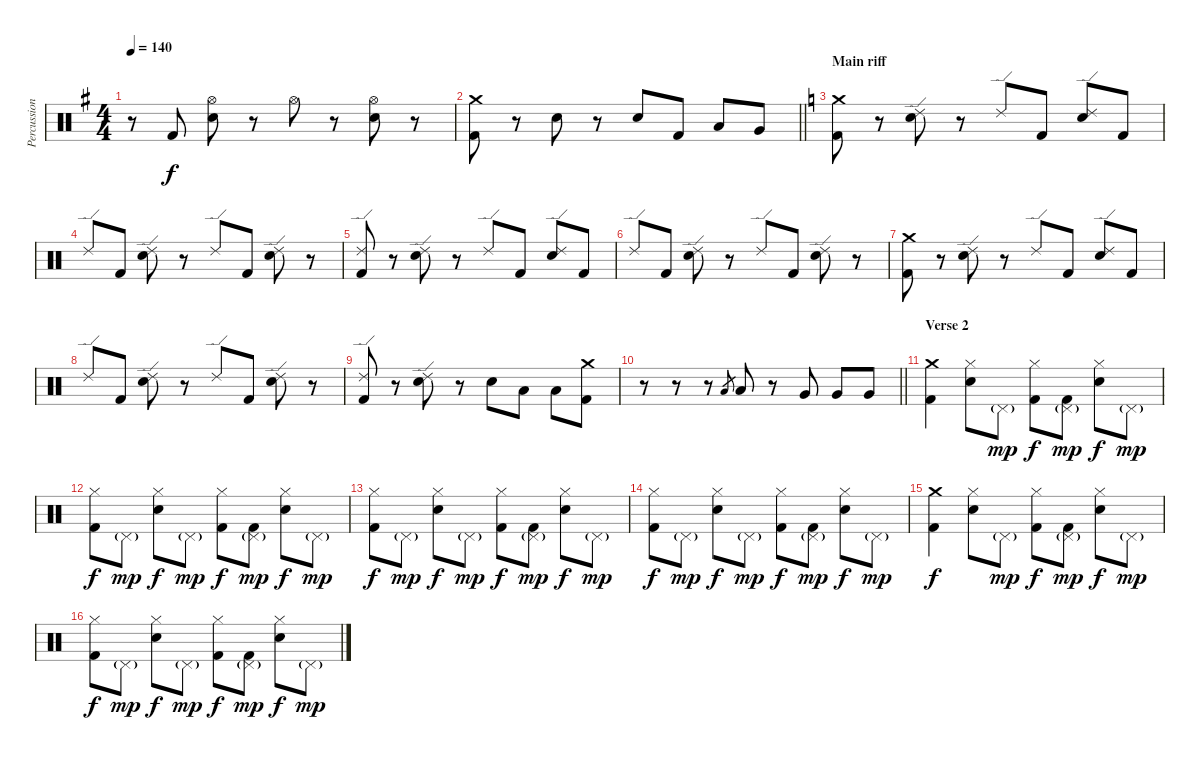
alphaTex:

\track ("Percussion" "Percussion") {instrument percussion}
\staff {score}
\articulation defaults
\ts (4 4)
\tempo 140
\clef neutral
\ks g
r.8{dy f} "Kick (hit) 2".8 ("Hi-Hat (open)" "Electric Snare (hit)").8 r.8 "Hi-Hat (open)".8 r.8 ("Hi-Hat (open)" "Electric Snare (hit)").8 r.8 |
\barLineRight lightlight
("Crash medium (hit)" "Kick (hit) 2").8 r.8 "Electric Snare (hit)".8 r.8 "Electric Snare (hit)".8 "Kick (hit) 2".8 "Low Tom (hit)".8 "Very Low Tom (hit)".8 |
\section ("" "Main riff")
\ks c
("Crash medium (hit)" "Kick (hit) 2").8 r.8 ("Ride (edge) 2" "Electric Snare (hit)").8 r.8 "Ride (edge) 2".8 "Kick (hit) 2".8 ("Ride (edge) 2" "Electric Snare (hit)").8 "Kick (hit) 2".8 |
"Ride (edge) 2".8 "Kick (hit) 2".8 ("Ride (edge) 2" "Electric Snare (hit)").8 r.8 "Ride (edge) 2".8 "Kick (hit) 2".8 ("Ride (edge) 2" "Electric Snare (hit)").8 r.8 |
("Ride (edge) 2" "Kick (hit) 2").8 r.8 ("Ride (edge) 2" "Electric Snare (hit)").8 r.8 "Ride (edge) 2".8 "Kick (hit) 2".8 ("Ride (edge) 2" "Electric Snare (hit)").8 "Kick (hit) 2".8 |
"Ride (edge) 2".8 "Kick (hit) 2".8 ("Ride (edge) 2" "Electric Snare (hit)").8 r.8 "Ride (edge) 2".8 "Kick (hit) 2".8 ("Ride (edge) 2" "Electric Snare (hit)").8 r.8 |
("Crash medium (hit)" "Kick (hit) 2").8 r.8 ("Ride (edge) 2" "Electric Snare (hit)").8 r.8 "Ride (edge) 2".8 "Kick (hit) 2".8 ("Ride (edge) 2" "Electric Snare (hit)").8 "Kick (hit) 2".8 |
"Ride (edge) 2".8 "Kick (hit) 2".8 ("Ride (edge) 2" "Electric Snare (hit)").8 r.8 "Ride (edge) 2".8 "Kick (hit) 2".8 ("Ride (edge) 2" "Electric Snare (hit)").8 r.8 |
("Ride (edge) 2" "Kick (hit) 2").8 r.8 ("Ride (edge) 2" "Electric Snare (hit)").8 r.8 "Electric Snare (hit)".8 "Low Tom (hit)".8 "Low Tom (hit)".8 ("Crash medium (hit)" "Kick (hit) 2").8 |
\barLineRight lightlight
r.8 r.8 r.8 "Low Tom (hit)".8{gr} "Low Tom (hit)".8 r.8 "Very Low Tom (hit)".8 "Very Low Tom (hit)".8 "Very Low Tom (hit)".8 |
\section ("" "Verse 2")
("Crash medium (hit)" "Kick (hit) 2").4 ("Hi-Hat (closed)" "Electric Snare (hit)").8 "Pedal Hi-Hat (hit)"{g}.8{dy mp} ("Hi-Hat (closed)" "Kick (hit) 2").8{dy f} ("Pedal Hi-Hat (hit)"{g} "Kick (hit) 2").8{dy mp} ("Hi-Hat (closed)" "Electric Snare (hit)").8{dy f} "Pedal Hi-Hat (hit)"{g}.8{dy mp} |
("Hi-Hat (closed)" "Kick (hit) 2").8{dy f} "Pedal Hi-Hat (hit)"{g}.8{dy mp} ("Hi-Hat (closed)" "Electric Snare (hit)").8{dy f} "Pedal Hi-Hat (hit)"{g}.8{dy mp} ("Hi-Hat (closed)" "Kick (hit) 2").8{dy f} ("Pedal Hi-Hat (hit)"{g} "Kick (hit) 2").8{dy mp} ("Hi-Hat (closed)" "Electric Snare (hit)").8{dy f} "Pedal Hi-Hat (hit)"{g}.8{dy mp} |
("Hi-Hat (closed)" "Kick (hit) 2").8{dy f} "Pedal Hi-Hat (hit)"{g}.8{dy mp} ("Hi-Hat (closed)" "Electric Snare (hit)").8{dy f} "Pedal Hi-Hat (hit)"{g}.8{dy mp} ("Hi-Hat (closed)" "Kick (hit) 2").8{dy f} ("Pedal Hi-Hat (hit)"{g} "Kick (hit) 2").8{dy mp} ("Hi-Hat (closed)" "Electric Snare (hit)").8{dy f} "Pedal Hi-Hat (hit)"{g}.8{dy mp} |
("Hi-Hat (closed)" "Kick (hit) 2").8{dy f} "Pedal Hi-Hat (hit)"{g}.8{dy mp} ("Hi-Hat (closed)" "Electric Snare (hit)").8{dy f} "Pedal Hi-Hat (hit)"{g}.8{dy mp} ("Hi-Hat (closed)" "Kick (hit) 2").8{dy f} ("Pedal Hi-Hat (hit)"{g} "Kick (hit) 2").8{dy mp} ("Hi-Hat (closed)" "Electric Snare (hit)").8{dy f} "Pedal Hi-Hat (hit)"{g}.8{dy mp} |
("Crash medium (hit)" "Kick (hit) 2").4{dy f} ("Hi-Hat (closed)" "Electric Snare (hit)").8 "Pedal Hi-Hat (hit)"{g}.8{dy mp} ("Hi-Hat (closed)" "Kick (hit) 2").8{dy f} ("Pedal Hi-Hat (hit)"{g} "Kick (hit) 2").8{dy mp} ("Hi-Hat (closed)" "Electric Snare (hit)").8{dy f} "Pedal Hi-Hat (hit)"{g}.8{dy mp} |
("Hi-Hat (closed)" "Kick (hit) 2").8{dy f} "Pedal Hi-Hat (hit)"{g}.8{dy mp} ("Hi-Hat (closed)" "Electric Snare (hit)").8{dy f} "Pedal Hi-Hat (hit)"{g}.8{dy mp} ("Hi-Hat (closed)" "Kick (hit) 2").8{dy f} ("Pedal Hi-Hat (hit)"{g} "Kick (hit) 2").8{dy mp} ("Hi-Hat (closed)" "Electric Snare (hit)").8{dy f} "Pedal Hi-Hat (hit)"{g}.8{dy mp}
